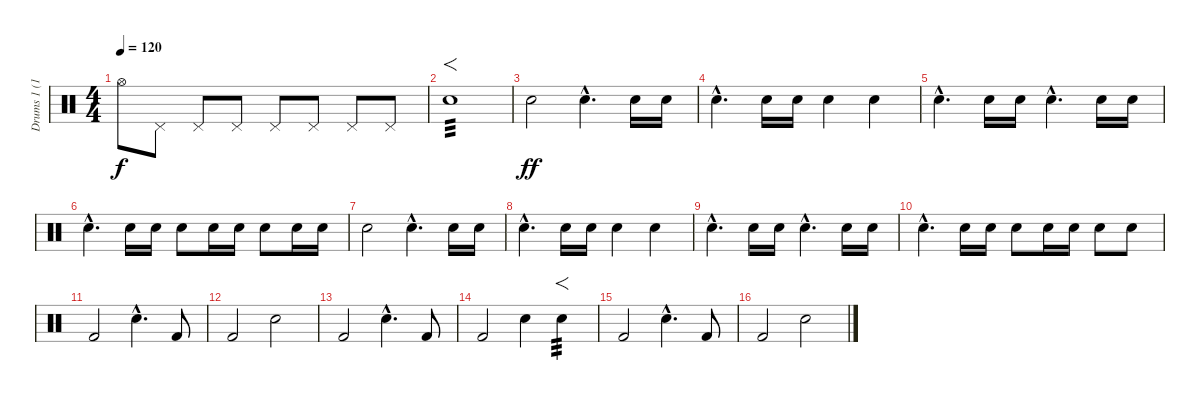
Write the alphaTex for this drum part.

\track ("Drums 1 (16)" "Drums 1 (1") {instrument percussion}
\staff {score}
\articulation defaults
\ts (4 4)
\tempo 120
\clef neutral
\ks c "Hi-Hat (open)".8{dy f} "Pedal Hi-Hat (hit)".8 "Pedal Hi-Hat (hit)".8 "Pedal Hi-Hat (hit)".8 "Pedal Hi-Hat (hit)".8 "Pedal Hi-Hat (hit)".8 "Pedal Hi-Hat (hit)".8 "Pedal Hi-Hat (hit)".8
|
"Snare (hit) 2".1{f tp 3} |
"Hand Clap (hit)".2{dy ff} "Hand Clap (hit)"{hac}.4{d} "Hand Clap (hit)".16 "Hand Clap (hit)".16 |
"Hand Clap (hit)"{hac}.4{d} "Hand Clap (hit)".16 "Hand Clap (hit)".16 "Hand Clap (hit)".4 "Hand Clap (hit)".4 |
"Hand Clap (hit)"{hac}.4{d} "Hand Clap (hit)".16 "Hand Clap (hit)".16 "Hand Clap (hit)"{hac}.4{d} "Hand Clap (hit)".16 "Hand Clap (hit)".16 |
"Hand Clap (hit)"{hac}.4{d} "Hand Clap (hit)".16 "Hand Clap (hit)".16 "Hand Clap (hit)".8 "Hand Clap (hit)".16 "Hand Clap (hit)".16 "Hand Clap (hit)".8 "Hand Clap (hit)".16 "Hand Clap (hit)".16 |
"Hand Clap (hit)".2 "Hand Clap (hit)"{hac}.4{d} "Hand Clap (hit)".16 "Hand Clap (hit)".16 |
"Hand Clap (hit)"{hac}.4{d} "Hand Clap (hit)".16 "Hand Clap (hit)".16 "Hand Clap (hit)".4 "Hand Clap (hit)".4 |
"Hand Clap (hit)"{hac}.4{d} "Hand Clap (hit)".16 "Hand Clap (hit)".16 "Hand Clap (hit)"{hac}.4{d} "Hand Clap (hit)".16 "Hand Clap (hit)".16 |
"Hand Clap (hit)"{hac}.4{d} "Hand Clap (hit)".16 "Hand Clap (hit)".16 "Hand Clap (hit)".8 "Hand Clap (hit)".16 "Hand Clap (hit)".16 "Hand Clap (hit)".8 "Hand Clap (hit)".8 |
"Kick (hit) 2".2 "Snare (hit) 2"{hac}.4{d} "Kick (hit) 2".8 |
"Kick (hit) 2".2 "Snare (hit) 2".2 |
"Kick (hit) 2".2 "Snare (hit) 2"{hac}.4{d} "Kick (hit) 2".8 |
"Kick (hit) 2".2 "Snare (hit) 2".4 "Snare (hit) 2".4{f tp 3} |
"Kick (hit) 2".2 "Snare (hit) 2"{hac}.4{d} "Kick (hit) 2".8 |
"Kick (hit) 2".2 "Snare (hit) 2".2
